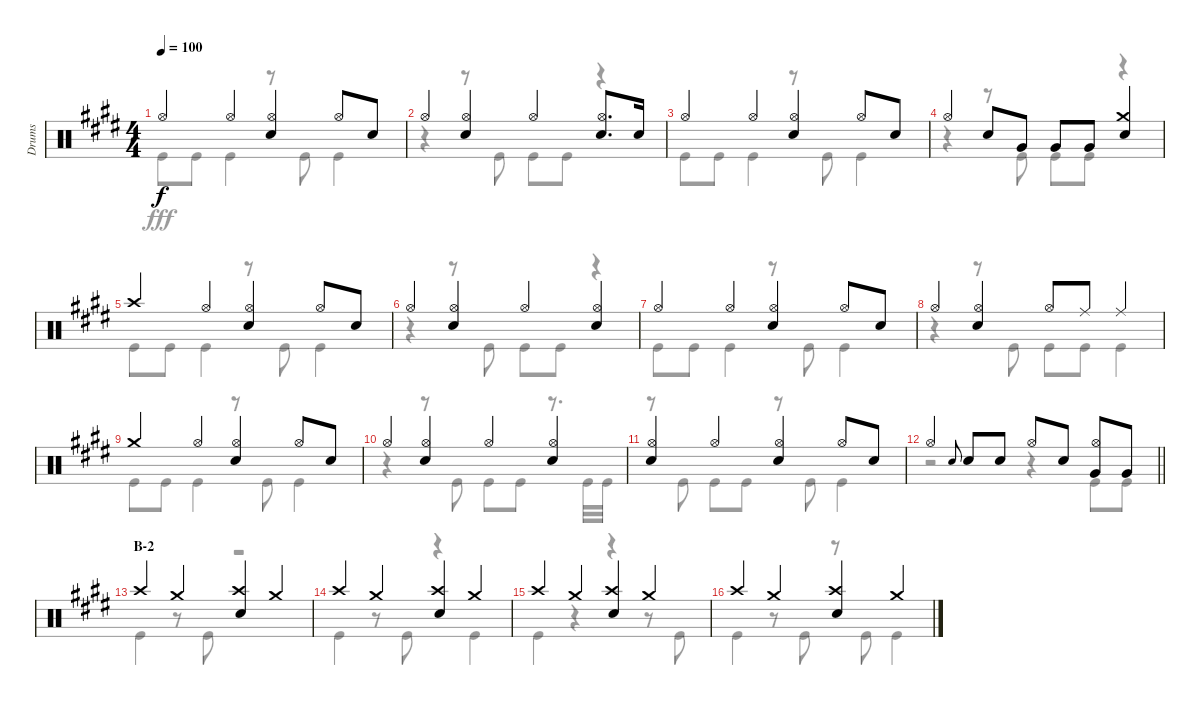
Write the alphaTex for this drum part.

\track ("Drums" "Drums") {instrument percussion}
\staff {score}
\articulation defaults
\voice
\ts (4 4)
\tempo 100
\clef neutral
\ks e "Hi-Hat (open)".4{dy f} "Hi-Hat (open)".4
("Hi-Hat (open)" "Snare (hit) 2").4 "Hi-Hat (open)".8 "Snare (hit) 2".8 |
"Hi-Hat (open)".4 ("Hi-Hat (open)" "Snare (hit) 2").4 "Hi-Hat (open)".4 ("Hi-Hat (open)" "Snare (hit) 2").8{d} "Snare (hit) 2".16 |
"Hi-Hat (open)".4 "Hi-Hat (open)".4 ("Hi-Hat (open)" "Snare (hit) 2").4 "Hi-Hat (open)".8 "Snare (hit) 2".8 |
"Hi-Hat (open)".4 "Snare (hit) 2".8 "Very Low Tom (hit)".8 "Very Low Tom (hit)".8 "Very Low Tom (hit)".8 ("Crash medium (hit)" "Snare (hit) 2").4 |
"Crash high (hit)".4 "Hi-Hat (open)".4 ("Hi-Hat (open)" "Snare (hit) 2").4 "Hi-Hat (open)".8 "Snare (hit) 2".8 |
"Hi-Hat (open)".4 ("Hi-Hat (open)" "Snare (hit) 2").4 "Hi-Hat (open)".4 ("Hi-Hat (open)" "Snare (hit) 2").4 |
"Hi-Hat (open)".4 "Hi-Hat (open)".4 ("Hi-Hat (open)" "Snare (hit) 2").4 "Hi-Hat (open)".8 "Snare (hit) 2".8 |
"Hi-Hat (open)".4 ("Hi-Hat (open)" "Snare (hit) 2").4 "Hi-Hat (open)".8 "Ride (middle)".8 "Ride (middle)".4 |
"Crash medium (hit)".4 "Hi-Hat (open)".4 ("Hi-Hat (open)" "Snare (hit) 2").4 "Hi-Hat (open)".8 "Snare (hit) 2".8 |
"Hi-Hat (open)".4 ("Hi-Hat (open)" "Snare (hit) 2").4 "Hi-Hat (open)".4 ("Hi-Hat (open)" "Snare (hit) 2").4 |
("Hi-Hat (open)" "Snare (hit) 2").4 "Hi-Hat (open)".4 ("Hi-Hat (open)" "Snare (hit) 2").4 "Hi-Hat (open)".8 "Snare (hit) 2".8 |
\barLineRight lightlight "Hi-Hat (open)".4 "Snare (hit) 2".8{gr onbeat} "Snare (hit) 2".8 "Snare (hit) 2".8 "Hi-Hat (open)".8 "Snare (hit) 2".8
("Hi-Hat (open)" "Very Low Tom (hit)").8 "Very Low Tom (hit)".8 |
\section ("" "B-2")
"Crash high (hit)".4 "Crash medium (hit)".4 ("Crash high (hit)" "Snare (hit) 2").4 "Crash medium (hit)".4 |
"Crash high (hit)".4 "Crash medium (hit)".4 ("Crash high (hit)" "Snare (hit) 2").4 "Crash medium (hit)".4 |
"Crash high (hit)".4 "Crash medium (hit)".4 ("Crash high (hit)" "Snare (hit) 2").4 "Crash medium (hit)".4 |
"Crash high (hit)".4 "Crash medium (hit)".4 ("Crash high (hit)" "Snare (hit) 2").4 "Crash medium (hit)".4
\voice
\clef neutral
\ottava regular
\simile none
\ks e "Kick (hit)".8{dy fff} "Kick (hit)".8 "Kick (hit)".4
r.8 "Kick (hit)".8 "Kick (hit)".4 |
r.4 r.8 "Kick (hit)".8 "Kick (hit)".8 "Kick (hit)".8 r.4 |
"Kick (hit)".8 "Kick (hit)".8 "Kick (hit)".4 r.8 "Kick (hit)".8 "Kick (hit)".4 |
r.4 r.8 "Kick (hit)".8 "Kick (hit)".8 "Kick (hit)".8 r.4 |
"Kick (hit)".8 "Kick (hit)".8 "Kick (hit)".4 r.8 "Kick (hit)".8 "Kick (hit)".4 |
r.4 r.8 "Kick (hit)".8 "Kick (hit)".8 "Kick (hit)".8 r.4 |
"Kick (hit)".8 "Kick (hit)".8 "Kick (hit)".4 r.8 "Kick (hit)".8 "Kick (hit)".4 |
r.4 r.8 "Kick (hit)".8 "Kick (hit)".8 "Kick (hit)".8 "Kick (hit)".4 |
"Kick (hit)".8 "Kick (hit)".8 "Kick (hit)".4 r.8 "Kick (hit)".8 "Kick (hit)".4 |
r.4 r.8 "Kick (hit)".8 "Kick (hit)".8 "Kick (hit)".8 r.8{d} "Kick (hit)".32 "Kick (hit)".32 |
r.8 "Kick (hit)".8 "Kick (hit)".8 "Kick (hit)".8 r.8 "Kick (hit)".8 "Kick (hit)".4 |
\barLineRight lightlight
r.2 r.4 "Kick (hit)".8 "Kick (hit)".8 |
"Kick (hit)".4 r.8 "Kick (hit)".8 r.2 |
"Kick (hit)".4 r.8 "Kick (hit)".8 r.4 "Kick (hit)".4 |
"Kick (hit)".4 r.4 r.4 r.8 "Kick (hit)".8 |
"Kick (hit)".4 r.8 "Kick (hit)".8 r.8 "Kick (hit)".8 "Kick (hit)".4
